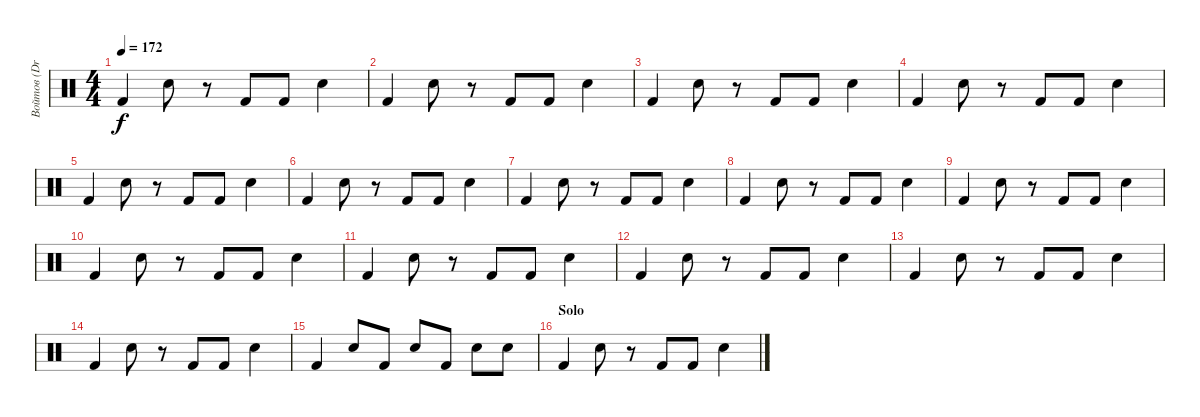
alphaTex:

\track ("Войтов (Drums)" "Войтов (Dr") {instrument percussion}
\staff {score}
\articulation defaults
\ts (4 4)
\tempo 172
\clef neutral
\ks c "Kick (hit) 2".4{dy f} "Electric Snare (hit)".8
r.8 "Kick (hit) 2".8 "Kick (hit) 2".8 "Electric Snare (hit)".4 |
"Kick (hit) 2".4 "Electric Snare (hit)".8 r.8 "Kick (hit) 2".8 "Kick (hit) 2".8 "Electric Snare (hit)".4 |
"Kick (hit) 2".4 "Electric Snare (hit)".8 r.8 "Kick (hit) 2".8 "Kick (hit) 2".8 "Electric Snare (hit)".4 |
"Kick (hit) 2".4 "Electric Snare (hit)".8 r.8 "Kick (hit) 2".8 "Kick (hit) 2".8 "Electric Snare (hit)".4 |
"Kick (hit) 2".4 "Electric Snare (hit)".8 r.8 "Kick (hit) 2".8 "Kick (hit) 2".8 "Electric Snare (hit)".4 |
"Kick (hit) 2".4 "Electric Snare (hit)".8 r.8 "Kick (hit) 2".8 "Kick (hit) 2".8 "Electric Snare (hit)".4 |
"Kick (hit) 2".4 "Electric Snare (hit)".8 r.8 "Kick (hit) 2".8 "Kick (hit) 2".8 "Electric Snare (hit)".4 |
"Kick (hit) 2".4 "Electric Snare (hit)".8 r.8 "Kick (hit) 2".8 "Kick (hit) 2".8 "Electric Snare (hit)".4 |
"Kick (hit) 2".4 "Electric Snare (hit)".8 r.8 "Kick (hit) 2".8 "Kick (hit) 2".8 "Electric Snare (hit)".4 |
"Kick (hit) 2".4 "Electric Snare (hit)".8 r.8 "Kick (hit) 2".8 "Kick (hit) 2".8 "Electric Snare (hit)".4 |
"Kick (hit) 2".4 "Electric Snare (hit)".8 r.8 "Kick (hit) 2".8 "Kick (hit) 2".8 "Electric Snare (hit)".4 |
"Kick (hit) 2".4 "Electric Snare (hit)".8 r.8 "Kick (hit) 2".8 "Kick (hit) 2".8 "Electric Snare (hit)".4 |
"Kick (hit) 2".4 "Electric Snare (hit)".8 r.8 "Kick (hit) 2".8 "Kick (hit) 2".8 "Electric Snare (hit)".4 |
"Kick (hit) 2".4 "Electric Snare (hit)".8 r.8 "Kick (hit) 2".8 "Kick (hit) 2".8 "Electric Snare (hit)".4 |
"Kick (hit) 2".4 "Electric Snare (hit)".8 "Kick (hit) 2".8 "Electric Snare (hit)".8 "Kick (hit) 2".8 "Electric Snare (hit)".8 "Electric Snare (hit)".8 |
\section ("" "Solo")
"Kick (hit) 2".4 "Electric Snare (hit)".8 r.8 "Kick (hit) 2".8 "Kick (hit) 2".8 "Electric Snare (hit)".4
